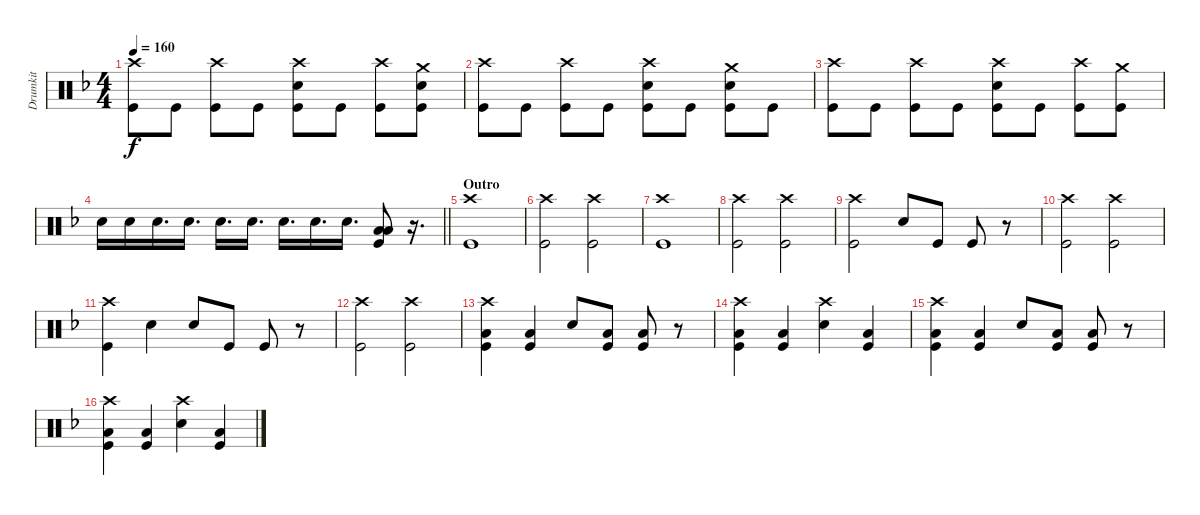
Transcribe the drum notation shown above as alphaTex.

\track ("Drumkit" "Drumkit") {instrument percussion}
\staff {score}
\articulation defaults
\ts (4 4)
\tempo 160
\clef neutral
\ks dminor
("Crash high (hit)" "Kick (hit)").8{dy f} "Kick (hit)".8 ("Crash high (hit)" "Kick (hit)").8 "Kick (hit)".8 ("Crash high (hit)" "Snare (hit) 2" "Kick (hit)").8 "Kick (hit)".8 ("Crash high (hit)" "Kick (hit)").8 ("Crash medium (hit)" "Snare (hit) 2" "Kick (hit)").8 |
("Crash high (hit)" "Kick (hit)").8 "Kick (hit)".8 ("Crash high (hit)" "Kick (hit)").8 "Kick (hit)".8 ("Crash high (hit)" "Snare (hit) 2" "Kick (hit)").8 "Kick (hit)".8 ("Crash medium (hit)" "Snare (hit) 2" "Kick (hit)").8 "Kick (hit)".8 |
("Crash high (hit)" "Kick (hit)").8 "Kick (hit)".8 ("Crash high (hit)" "Kick (hit)").8 "Kick (hit)".8 ("Crash high (hit)" "Snare (hit) 2" "Kick (hit)").8 "Kick (hit)".8 ("Crash high (hit)" "Kick (hit)").8 ("Crash medium (hit)" "Kick (hit)").8 |
\barLineRight lightlight "Snare (hit) 2".16 "Snare (hit) 2".16 "Snare (hit) 2".16{d} "Snare (hit) 2".16{d} "Snare (hit) 2".16{d} "Snare (hit) 2".16{d} "Snare (hit) 2".16{d} "Snare (hit) 2".16{d} "Snare (hit) 2".16{d}
("Low Tom (hit)" "Low Floor Tom (hit)" "Kick (hit)").8 r.16{d} |
\section ("" "Outro")
("Crash high (hit)" "Kick (hit)").1 |
("Crash high (hit)" "Kick (hit)").2 ("Crash high (hit)" "Kick (hit)").2 |
("Crash high (hit)" "Kick (hit)").1 |
("Crash high (hit)" "Kick (hit)").2 ("Crash high (hit)" "Kick (hit)").2 |
("Crash high (hit)" "Kick (hit)").2 "Snare (hit) 2".8 "Kick (hit)".8 "Kick (hit)".8 r.8 |
("Crash high (hit)" "Kick (hit)").2 ("Crash high (hit)" "Kick (hit)").2 |
("Crash high (hit)" "Kick (hit)").4 "Snare (hit) 2".4 "Snare (hit) 2".8 "Kick (hit)".8 "Kick (hit)".8 r.8 |
("Crash high (hit)" "Kick (hit)").2 ("Crash high (hit)" "Kick (hit)").2 |
("Crash high (hit)" "Low Floor Tom (hit)" "Kick (hit)").4 ("Low Floor Tom (hit)" "Kick (hit)").4 "Snare (hit) 2".8 ("Low Floor Tom (hit)" "Kick (hit)").8 ("Low Floor Tom (hit)" "Kick (hit)").8 r.8 |
("Crash high (hit)" "Low Floor Tom (hit)" "Kick (hit)").4 ("Low Floor Tom (hit)" "Kick (hit)").4 ("Crash high (hit)" "Snare (hit) 2").4 ("Low Floor Tom (hit)" "Kick (hit)").4 |
("Crash high (hit)" "Low Floor Tom (hit)" "Kick (hit)").4 ("Low Floor Tom (hit)" "Kick (hit)").4 "Snare (hit) 2".8 ("Low Floor Tom (hit)" "Kick (hit)").8 ("Low Floor Tom (hit)" "Kick (hit)").8 r.8 |
("Crash high (hit)" "Low Floor Tom (hit)" "Kick (hit)").4 ("Low Floor Tom (hit)" "Kick (hit)").4 ("Crash high (hit)" "Snare (hit) 2").4 ("Low Floor Tom (hit)" "Kick (hit)").4
